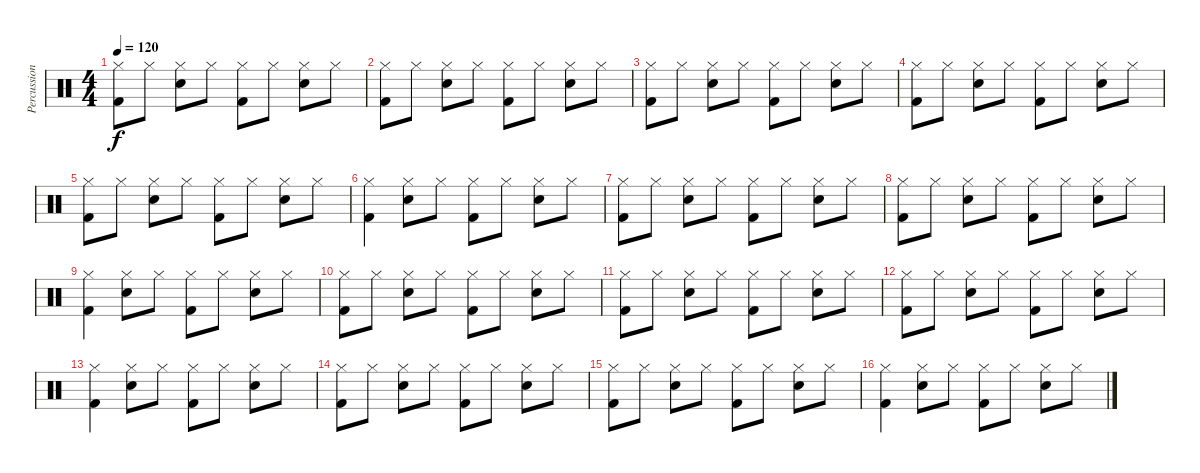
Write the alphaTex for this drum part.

\track ("Percussion" "Percussion") {instrument percussion}
\staff {score}
\articulation defaults
\ts (4 4)
\tempo 120
\clef neutral
\ks c
("Hi-Hat (closed)" "Kick (hit) 2").8{dy f} "Hi-Hat (closed)".8 ("Hi-Hat (closed)" "Snare (hit) 2").8 "Hi-Hat (closed)".8 ("Hi-Hat (closed)" "Kick (hit) 2").8 "Hi-Hat (closed)".8 ("Hi-Hat (closed)" "Snare (hit) 2").8 "Hi-Hat (closed)".8 |
("Hi-Hat (closed)" "Kick (hit) 2").8 "Hi-Hat (closed)".8 ("Hi-Hat (closed)" "Snare (hit) 2").8 "Hi-Hat (closed)".8 ("Hi-Hat (closed)" "Kick (hit) 2").8 "Hi-Hat (closed)".8 ("Hi-Hat (closed)" "Snare (hit) 2").8 "Hi-Hat (closed)".8 |
("Hi-Hat (closed)" "Kick (hit) 2").8 "Hi-Hat (closed)".8 ("Hi-Hat (closed)" "Snare (hit) 2").8 "Hi-Hat (closed)".8 ("Hi-Hat (closed)" "Kick (hit) 2").8 "Hi-Hat (closed)".8 ("Hi-Hat (closed)" "Snare (hit) 2").8 "Hi-Hat (closed)".8 |
("Hi-Hat (closed)" "Kick (hit) 2").8 "Hi-Hat (closed)".8 ("Hi-Hat (closed)" "Snare (hit) 2").8 "Hi-Hat (closed)".8 ("Hi-Hat (closed)" "Kick (hit) 2").8 "Hi-Hat (closed)".8 ("Hi-Hat (closed)" "Snare (hit) 2").8 "Hi-Hat (closed)".8 |
("Hi-Hat (closed)" "Kick (hit) 2").8 "Hi-Hat (closed)".8 ("Hi-Hat (closed)" "Snare (hit) 2").8 "Hi-Hat (closed)".8 ("Hi-Hat (closed)" "Kick (hit) 2").8 "Hi-Hat (closed)".8 ("Hi-Hat (closed)" "Snare (hit) 2").8 "Hi-Hat (closed)".8 |
("Hi-Hat (closed)" "Kick (hit) 2").4 ("Hi-Hat (closed)" "Snare (hit) 2").8 "Hi-Hat (closed)".8 ("Hi-Hat (closed)" "Kick (hit) 2").8 "Hi-Hat (closed)".8 ("Hi-Hat (closed)" "Snare (hit) 2").8 "Hi-Hat (closed)".8 |
("Hi-Hat (closed)" "Kick (hit) 2").8 "Hi-Hat (closed)".8 ("Hi-Hat (closed)" "Snare (hit) 2").8 "Hi-Hat (closed)".8 ("Hi-Hat (closed)" "Kick (hit) 2").8 "Hi-Hat (closed)".8 ("Hi-Hat (closed)" "Snare (hit) 2").8 "Hi-Hat (closed)".8 |
("Hi-Hat (closed)" "Kick (hit) 2").8 "Hi-Hat (closed)".8 ("Hi-Hat (closed)" "Snare (hit) 2").8 "Hi-Hat (closed)".8 ("Hi-Hat (closed)" "Kick (hit) 2").8 "Hi-Hat (closed)".8 ("Hi-Hat (closed)" "Snare (hit) 2").8 "Hi-Hat (closed)".8 |
("Hi-Hat (closed)" "Kick (hit) 2").4 ("Hi-Hat (closed)" "Snare (hit) 2").8 "Hi-Hat (closed)".8 ("Hi-Hat (closed)" "Kick (hit) 2").8 "Hi-Hat (closed)".8 ("Hi-Hat (closed)" "Snare (hit) 2").8 "Hi-Hat (closed)".8 |
("Hi-Hat (closed)" "Kick (hit) 2").8 "Hi-Hat (closed)".8 ("Hi-Hat (closed)" "Snare (hit) 2").8 "Hi-Hat (closed)".8 ("Hi-Hat (closed)" "Kick (hit) 2").8 "Hi-Hat (closed)".8 ("Hi-Hat (closed)" "Snare (hit) 2").8 "Hi-Hat (closed)".8 |
("Hi-Hat (closed)" "Kick (hit) 2").8 "Hi-Hat (closed)".8 ("Hi-Hat (closed)" "Snare (hit) 2").8 "Hi-Hat (closed)".8 ("Hi-Hat (closed)" "Kick (hit) 2").8 "Hi-Hat (closed)".8 ("Hi-Hat (closed)" "Snare (hit) 2").8 "Hi-Hat (closed)".8 |
("Hi-Hat (closed)" "Kick (hit) 2").8 "Hi-Hat (closed)".8 ("Hi-Hat (closed)" "Snare (hit) 2").8 "Hi-Hat (closed)".8 ("Hi-Hat (closed)" "Kick (hit) 2").8 "Hi-Hat (closed)".8 ("Hi-Hat (closed)" "Snare (hit) 2").8 "Hi-Hat (closed)".8 |
("Hi-Hat (closed)" "Kick (hit) 2").4 ("Hi-Hat (closed)" "Snare (hit) 2").8 "Hi-Hat (closed)".8 ("Hi-Hat (closed)" "Kick (hit) 2").8 "Hi-Hat (closed)".8 ("Hi-Hat (closed)" "Snare (hit) 2").8 "Hi-Hat (closed)".8 |
("Hi-Hat (closed)" "Kick (hit) 2").8 "Hi-Hat (closed)".8 ("Hi-Hat (closed)" "Snare (hit) 2").8 "Hi-Hat (closed)".8 ("Hi-Hat (closed)" "Kick (hit) 2").8 "Hi-Hat (closed)".8 ("Hi-Hat (closed)" "Snare (hit) 2").8 "Hi-Hat (closed)".8 |
("Hi-Hat (closed)" "Kick (hit) 2").8 "Hi-Hat (closed)".8 ("Hi-Hat (closed)" "Snare (hit) 2").8 "Hi-Hat (closed)".8 ("Hi-Hat (closed)" "Kick (hit) 2").8 "Hi-Hat (closed)".8 ("Hi-Hat (closed)" "Snare (hit) 2").8 "Hi-Hat (closed)".8 |
("Hi-Hat (closed)" "Kick (hit) 2").4 ("Hi-Hat (closed)" "Snare (hit) 2").8 "Hi-Hat (closed)".8 ("Hi-Hat (closed)" "Kick (hit) 2").8 "Hi-Hat (closed)".8 ("Hi-Hat (closed)" "Snare (hit) 2").8 "Hi-Hat (closed)".8
